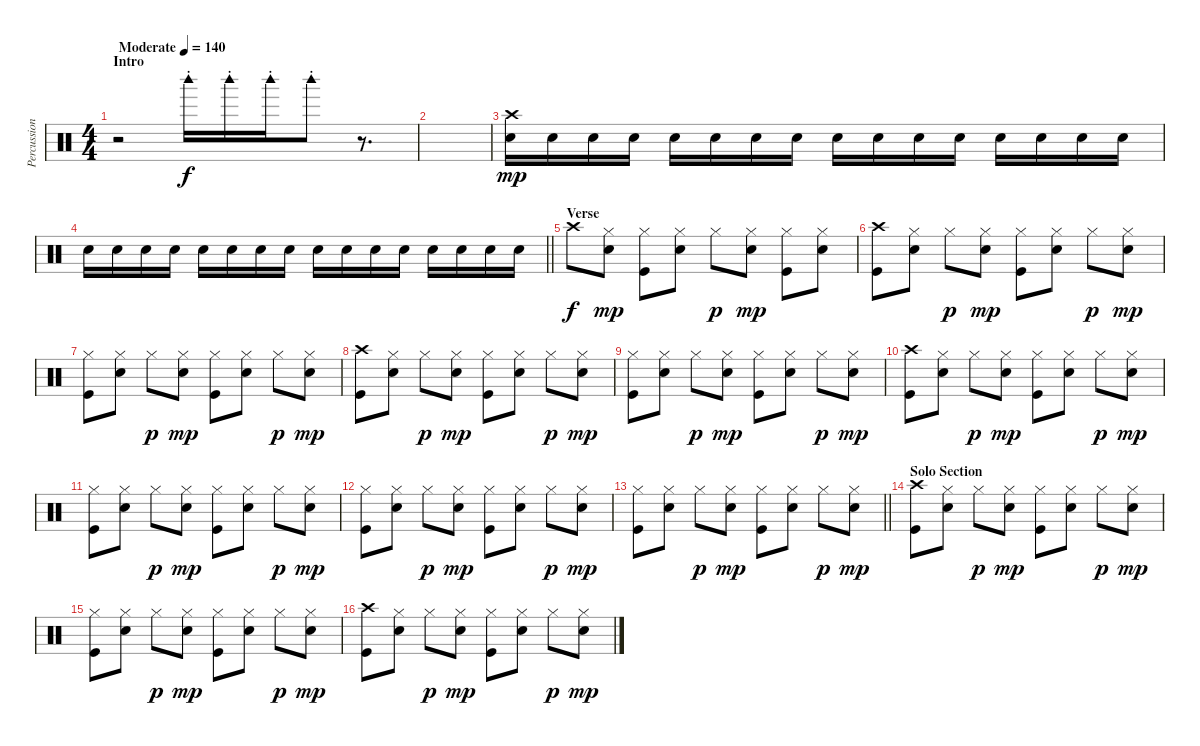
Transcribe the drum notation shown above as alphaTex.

\track ("Percussion" "Percussion") {instrument percussion}
\staff {score}
\articulation defaults
\ts (4 4)
\section ("" "Intro")
\tempo (140 "Moderate")
\clef neutral
\ks c
r.2{dy f} "Woodblock high (hit)"{st}.16 "Woodblock high (hit)"{st}.16 "Woodblock high (hit)"{st}.16 "Woodblock high (hit)"{st}.8 r.8{d} |
|
("Crash high (hit)" "Electric Snare (hit)").16{dy mp} "Electric Snare (hit)".16 "Electric Snare (hit)".16 "Electric Snare (hit)".16 "Electric Snare (hit)".16 "Electric Snare (hit)".16 "Electric Snare (hit)".16 "Electric Snare (hit)".16 "Electric Snare (hit)".16 "Electric Snare (hit)".16 "Electric Snare (hit)".16 "Electric Snare (hit)".16 "Electric Snare (hit)".16 "Electric Snare (hit)".16 "Electric Snare (hit)".16 "Electric Snare (hit)".16 |
\barLineRight lightlight "Electric Snare (hit)".16 "Electric Snare (hit)".16 "Electric Snare (hit)".16 "Electric Snare (hit)".16 "Electric Snare (hit)".16 "Electric Snare (hit)".16 "Electric Snare (hit)".16 "Electric Snare (hit)".16 "Electric Snare (hit)".16 "Electric Snare (hit)".16 "Electric Snare (hit)".16 "Electric Snare (hit)".16 "Electric Snare (hit)".16 "Electric Snare (hit)".16 "Electric Snare (hit)".16 "Electric Snare (hit)".16
|
\section ("" "Verse")
"Crash high (hit)".8{dy f} ("Hi-Hat (closed)" "Electric Snare (hit)").8{dy mp} ("Hi-Hat (closed)" "Kick (hit)").8 ("Hi-Hat (closed)" "Electric Snare (hit)").8 "Hi-Hat (closed)".8{dy p} ("Hi-Hat (closed)" "Electric Snare (hit)").8{dy mp} ("Hi-Hat (closed)" "Kick (hit)").8 ("Hi-Hat (closed)" "Electric Snare (hit)").8 |
("Crash high (hit)" "Kick (hit)").8 ("Hi-Hat (closed)" "Electric Snare (hit)").8 "Hi-Hat (closed)".8{dy p} ("Hi-Hat (closed)" "Electric Snare (hit)").8{dy mp} ("Hi-Hat (closed)" "Kick (hit)").8 ("Hi-Hat (closed)" "Electric Snare (hit)").8 "Hi-Hat (closed)".8{dy p} ("Hi-Hat (closed)" "Electric Snare (hit)").8{dy mp} |
("Hi-Hat (closed)" "Kick (hit)").8 ("Hi-Hat (closed)" "Electric Snare (hit)").8 "Hi-Hat (closed)".8{dy p} ("Hi-Hat (closed)" "Electric Snare (hit)").8{dy mp} ("Hi-Hat (closed)" "Kick (hit)").8 ("Hi-Hat (closed)" "Electric Snare (hit)").8 "Hi-Hat (closed)".8{dy p} ("Hi-Hat (closed)" "Electric Snare (hit)").8{dy mp} |
("Crash high (hit)" "Kick (hit)").8 ("Hi-Hat (closed)" "Electric Snare (hit)").8 "Hi-Hat (closed)".8{dy p} ("Hi-Hat (closed)" "Electric Snare (hit)").8{dy mp} ("Hi-Hat (closed)" "Kick (hit)").8 ("Hi-Hat (closed)" "Electric Snare (hit)").8 "Hi-Hat (closed)".8{dy p} ("Hi-Hat (closed)" "Electric Snare (hit)").8{dy mp} |
("Hi-Hat (closed)" "Kick (hit)").8 ("Hi-Hat (closed)" "Electric Snare (hit)").8 "Hi-Hat (closed)".8{dy p} ("Hi-Hat (closed)" "Electric Snare (hit)").8{dy mp} ("Hi-Hat (closed)" "Kick (hit)").8 ("Hi-Hat (closed)" "Electric Snare (hit)").8 "Hi-Hat (closed)".8{dy p} ("Hi-Hat (closed)" "Electric Snare (hit)").8{dy mp} |
("Crash high (hit)" "Kick (hit)").8 ("Hi-Hat (closed)" "Electric Snare (hit)").8 "Hi-Hat (closed)".8{dy p} ("Hi-Hat (closed)" "Electric Snare (hit)").8{dy mp} ("Hi-Hat (closed)" "Kick (hit)").8 ("Hi-Hat (closed)" "Electric Snare (hit)").8 "Hi-Hat (closed)".8{dy p} ("Hi-Hat (closed)" "Electric Snare (hit)").8{dy mp} |
("Hi-Hat (closed)" "Kick (hit)").8 ("Hi-Hat (closed)" "Electric Snare (hit)").8 "Hi-Hat (closed)".8{dy p} ("Hi-Hat (closed)" "Electric Snare (hit)").8{dy mp} ("Hi-Hat (closed)" "Kick (hit)").8 ("Hi-Hat (closed)" "Electric Snare (hit)").8 "Hi-Hat (closed)".8{dy p} ("Hi-Hat (closed)" "Electric Snare (hit)").8{dy mp} |
("Hi-Hat (closed)" "Kick (hit)").8 ("Hi-Hat (closed)" "Electric Snare (hit)").8 "Hi-Hat (closed)".8{dy p} ("Hi-Hat (closed)" "Electric Snare (hit)").8{dy mp} ("Hi-Hat (closed)" "Kick (hit)").8 ("Hi-Hat (closed)" "Electric Snare (hit)").8 "Hi-Hat (closed)".8{dy p} ("Hi-Hat (closed)" "Electric Snare (hit)").8{dy mp} |
\barLineRight lightlight
("Hi-Hat (closed)" "Kick (hit)").8 ("Hi-Hat (closed)" "Electric Snare (hit)").8 "Hi-Hat (closed)".8{dy p} ("Hi-Hat (closed)" "Electric Snare (hit)").8{dy mp} ("Hi-Hat (closed)" "Kick (hit)").8 ("Hi-Hat (closed)" "Electric Snare (hit)").8 "Hi-Hat (closed)".8{dy p} ("Hi-Hat (closed)" "Electric Snare (hit)").8{dy mp} |
\section ("" "Solo Section")
("Crash high (hit)" "Kick (hit)").8 ("Hi-Hat (closed)" "Electric Snare (hit)").8 "Hi-Hat (closed)".8{dy p} ("Hi-Hat (closed)" "Electric Snare (hit)").8{dy mp} ("Hi-Hat (closed)" "Kick (hit)").8 ("Hi-Hat (closed)" "Electric Snare (hit)").8 "Hi-Hat (closed)".8{dy p} ("Hi-Hat (closed)" "Electric Snare (hit)").8{dy mp} |
("Hi-Hat (closed)" "Kick (hit)").8 ("Hi-Hat (closed)" "Electric Snare (hit)").8 "Hi-Hat (closed)".8{dy p} ("Hi-Hat (closed)" "Electric Snare (hit)").8{dy mp} ("Hi-Hat (closed)" "Kick (hit)").8 ("Hi-Hat (closed)" "Electric Snare (hit)").8 "Hi-Hat (closed)".8{dy p} ("Hi-Hat (closed)" "Electric Snare (hit)").8{dy mp} |
("Crash high (hit)" "Kick (hit)").8 ("Hi-Hat (closed)" "Electric Snare (hit)").8 "Hi-Hat (closed)".8{dy p} ("Hi-Hat (closed)" "Electric Snare (hit)").8{dy mp} ("Hi-Hat (closed)" "Kick (hit)").8 ("Hi-Hat (closed)" "Electric Snare (hit)").8 "Hi-Hat (closed)".8{dy p} ("Hi-Hat (closed)" "Electric Snare (hit)").8{dy mp}
